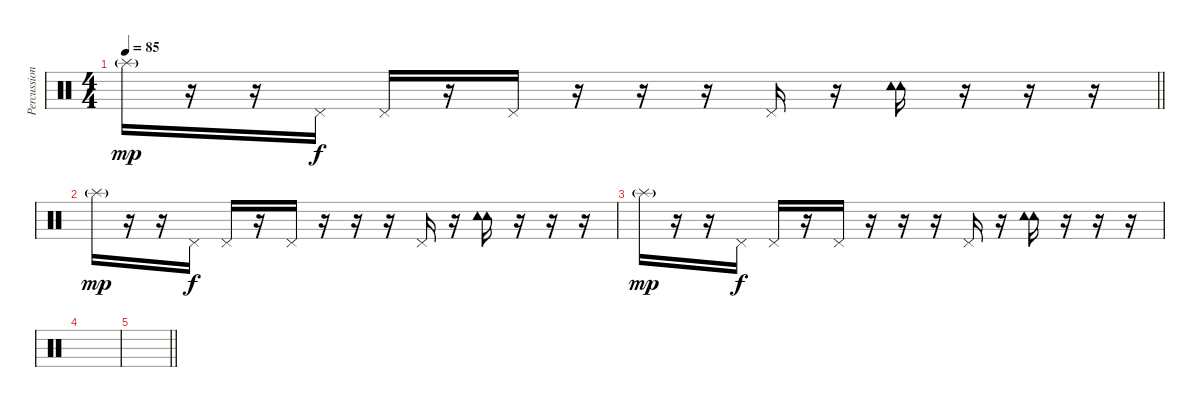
\track ("Percussion" "Percussion") {instrument percussion}
\staff {score}
\articulation defaults
\ts (4 4)
\tempo 85
\clef neutral
\barLineRight lightlight
\ks c "Splash (hit)"{g}.16{dy mp}
r.16 r.16 "Pedal Hi-Hat (hit)".16{dy f} "Pedal Hi-Hat (hit)".16 r.16 "Pedal Hi-Hat (hit)".16 r.16 r.16 r.16 "Pedal Hi-Hat (hit)".16 r.16 ("Tambourine (hit)" "Tambourine (hit)").16 r.16 r.16 r.16 |
"Splash (hit)"{g}.16{dy mp} r.16 r.16 "Pedal Hi-Hat (hit)".16{dy f} "Pedal Hi-Hat (hit)".16 r.16 "Pedal Hi-Hat (hit)".16 r.16 r.16 r.16 "Pedal Hi-Hat (hit)".16 r.16 ("Tambourine (hit)" "Tambourine (hit)").16 r.16 r.16 r.16 |
"Splash (hit)"{g}.16{dy mp} r.16 r.16 "Pedal Hi-Hat (hit)".16{dy f} "Pedal Hi-Hat (hit)".16 r.16 "Pedal Hi-Hat (hit)".16 r.16 r.16 r.16 "Pedal Hi-Hat (hit)".16 r.16 ("Tambourine (hit)" "Tambourine (hit)").16 r.16 r.16 r.16 |
|
\barLineRight lightlight
